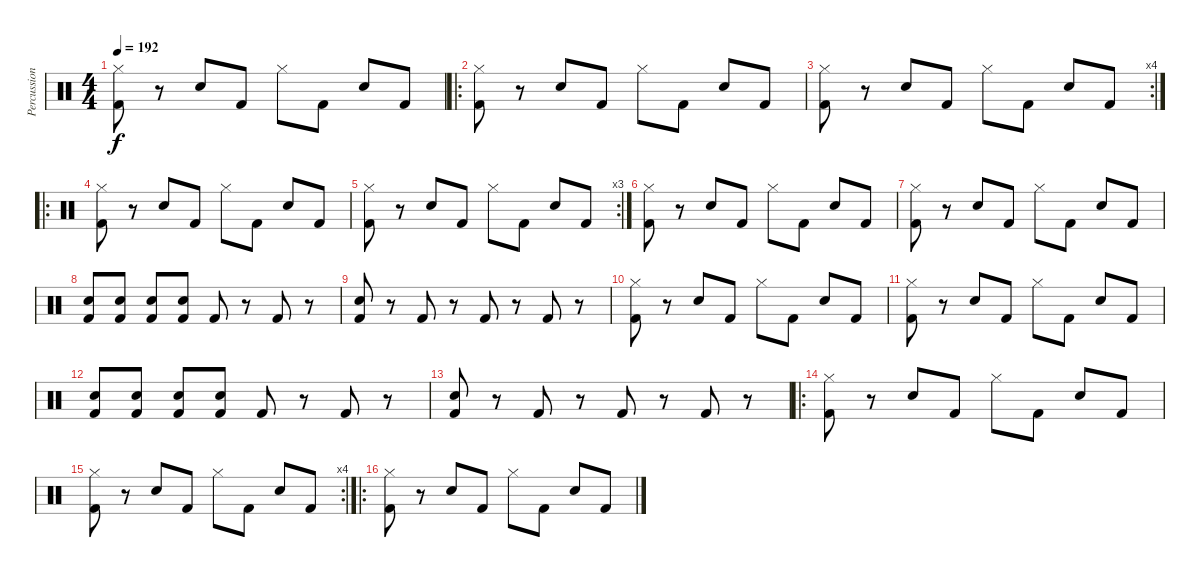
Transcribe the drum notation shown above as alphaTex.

\track ("Percussions" "Percussion") {instrument percussion}
\staff {score}
\articulation defaults
\ts (4 4)
\tempo 192
\clef neutral
\ks c
("Kick (hit) 2" "Hi-Hat (closed)").8{dy f} r.8 "Snare (hit) 2".8 "Kick (hit) 2".8 "Hi-Hat (closed)".8 "Kick (hit) 2".8 "Snare (hit) 2".8 "Kick (hit) 2".8 |
\ro
("Kick (hit) 2" "Hi-Hat (closed)").8 r.8 "Snare (hit) 2".8 "Kick (hit) 2".8 "Hi-Hat (closed)".8 "Kick (hit) 2".8 "Snare (hit) 2".8 "Kick (hit) 2".8 |
\rc 4
("Kick (hit) 2" "Hi-Hat (closed)").8 r.8 "Snare (hit) 2".8 "Kick (hit) 2".8 "Hi-Hat (closed)".8 "Kick (hit) 2".8 "Snare (hit) 2".8 "Kick (hit) 2".8 |
\ro
("Kick (hit) 2" "Hi-Hat (closed)").8 r.8 "Snare (hit) 2".8 "Kick (hit) 2".8 "Hi-Hat (closed)".8 "Kick (hit) 2".8 "Snare (hit) 2".8 "Kick (hit) 2".8 |
\rc 3
("Kick (hit) 2" "Hi-Hat (closed)").8 r.8 "Snare (hit) 2".8 "Kick (hit) 2".8 "Hi-Hat (closed)".8 "Kick (hit) 2".8 "Snare (hit) 2".8 "Kick (hit) 2".8 |
("Kick (hit) 2" "Hi-Hat (closed)").8 r.8 "Snare (hit) 2".8 "Kick (hit) 2".8 "Hi-Hat (closed)".8 "Kick (hit) 2".8 "Snare (hit) 2".8 "Kick (hit) 2".8 |
("Kick (hit) 2" "Hi-Hat (closed)").8 r.8 "Snare (hit) 2".8 "Kick (hit) 2".8 "Hi-Hat (closed)".8 "Kick (hit) 2".8 "Snare (hit) 2".8 "Kick (hit) 2".8 |
("Snare (hit) 2" "Kick (hit) 2").8 ("Snare (hit) 2" "Kick (hit) 2").8 ("Snare (hit) 2" "Kick (hit) 2").8 ("Snare (hit) 2" "Kick (hit) 2").8 "Kick (hit) 2".8 r.8 "Kick (hit) 2".8 r.8 |
("Snare (hit) 2" "Kick (hit) 2").8 r.8 "Kick (hit) 2".8 r.8 "Kick (hit) 2".8 r.8 "Kick (hit) 2".8 r.8 |
("Kick (hit) 2" "Hi-Hat (closed)").8 r.8 "Snare (hit) 2".8 "Kick (hit) 2".8 "Hi-Hat (closed)".8 "Kick (hit) 2".8 "Snare (hit) 2".8 "Kick (hit) 2".8 |
("Kick (hit) 2" "Hi-Hat (closed)").8 r.8 "Snare (hit) 2".8 "Kick (hit) 2".8 "Hi-Hat (closed)".8 "Kick (hit) 2".8 "Snare (hit) 2".8 "Kick (hit) 2".8 |
("Snare (hit) 2" "Kick (hit) 2").8 ("Snare (hit) 2" "Kick (hit) 2").8 ("Snare (hit) 2" "Kick (hit) 2").8 ("Snare (hit) 2" "Kick (hit) 2").8 "Kick (hit) 2".8 r.8 "Kick (hit) 2".8 r.8 |
("Snare (hit) 2" "Kick (hit) 2").8 r.8 "Kick (hit) 2".8 r.8 "Kick (hit) 2".8 r.8 "Kick (hit) 2".8 r.8 |
\ro
("Kick (hit) 2" "Hi-Hat (closed)").8 r.8 "Snare (hit) 2".8 "Kick (hit) 2".8 "Hi-Hat (closed)".8 "Kick (hit) 2".8 "Snare (hit) 2".8 "Kick (hit) 2".8 |
\rc 4
("Kick (hit) 2" "Hi-Hat (closed)").8 r.8 "Snare (hit) 2".8 "Kick (hit) 2".8 "Hi-Hat (closed)".8 "Kick (hit) 2".8 "Snare (hit) 2".8 "Kick (hit) 2".8 |
\ro
("Kick (hit) 2" "Hi-Hat (closed)").8 r.8 "Snare (hit) 2".8 "Kick (hit) 2".8 "Hi-Hat (closed)".8 "Kick (hit) 2".8 "Snare (hit) 2".8 "Kick (hit) 2".8
